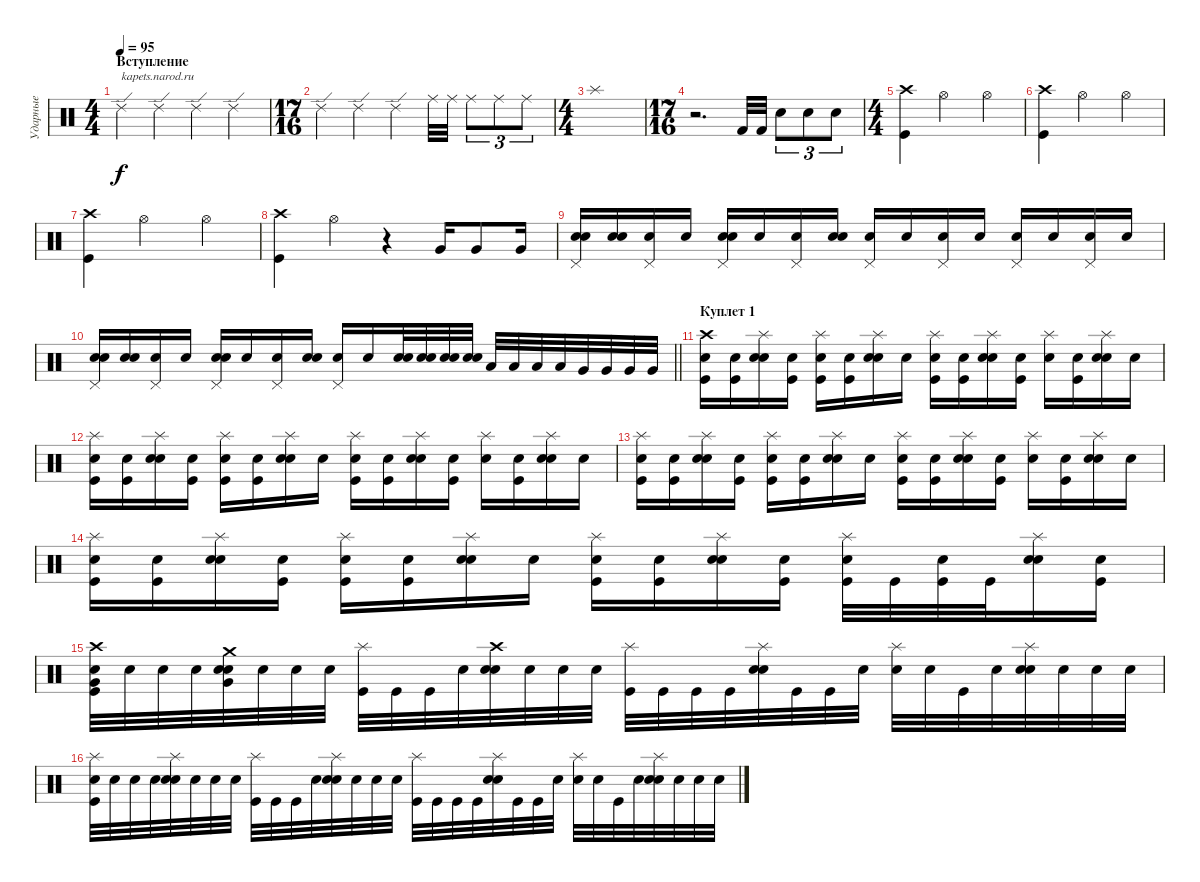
\track ("Ударные" "Ударные") {instrument percussion}
\staff {score}
\articulation defaults
\ts (4 4)
\section ("" "Вступление")
\tempo 95
\clef neutral
\ks c "Ride (edge) 2".4{txt "kapets.narod.ru" dy f} "Ride (edge) 2".4 "Ride (edge) 2".4 "Ride (edge) 2".4
|
\ts (17 16)
"Ride (edge) 2".4 "Ride (edge) 2".4 "Ride (edge) 2".4 "Ride (middle)".32 "Ride (middle)".32 "Ride (middle)".8{tu (3 2)} "Ride (middle)".8{tu (3 2)} "Ride (middle)".8{tu (3 2)} |
\ts (4 4)
"Splash (hit)".1 |
\ts (17 16)
r.2{d} "Kick (hit) 2".32 "Kick (hit) 2".32 "Electric Snare (hit)".8{tu (3 2)} "Electric Snare (hit)".8{tu (3 2)} "Electric Snare (hit)".8{tu (3 2)} |
\ts (4 4)
("Crash high (hit)" "Kick (hit)").4 "Hi-Hat (open)".2 "Hi-Hat (open)".4 |
("Crash high (hit)" "Kick (hit)").4 "Hi-Hat (open)".2 "Hi-Hat (open)".4 |
("Crash high (hit)" "Kick (hit)").4 "Hi-Hat (open)".2 "Hi-Hat (open)".4 |
("Crash high (hit)" "Kick (hit)").4 "Hi-Hat (open)".4 r.4 "Very Low Tom (hit)".16 "Very Low Tom (hit)".8 "Very Low Tom (hit)".16 |
("Pedal Hi-Hat (hit)" "Electric Snare (hit)" "Snare (hit)"{x}).16 ("Electric Snare (hit)" "Snare (hit)"{x}).16 ("Pedal Hi-Hat (hit)" "Snare (hit)"{x}).16 "Snare (hit)"{x}.16 ("Pedal Hi-Hat (hit)" "Electric Snare (hit)" "Snare (hit)"{x}).16 "Snare (hit)"{x}.16 ("Pedal Hi-Hat (hit)" "Snare (hit)"{x}).16 ("Electric Snare (hit)" "Snare (hit)"{x}).16 ("Pedal Hi-Hat (hit)" "Snare (hit)"{x}).16 "Snare (hit)"{x}.16 ("Pedal Hi-Hat (hit)" "Snare (hit)"{x}).16 "Snare (hit)"{x}.16 ("Pedal Hi-Hat (hit)" "Snare (hit)"{x}).16 "Snare (hit)"{x}.16 ("Pedal Hi-Hat (hit)" "Snare (hit)"{x}).16 "Snare (hit)"{x}.16 |
\barLineRight lightlight
("Pedal Hi-Hat (hit)" "Electric Snare (hit)" "Snare (hit)"{x}).16 ("Electric Snare (hit)" "Snare (hit)"{x}).16 ("Pedal Hi-Hat (hit)" "Snare (hit)"{x}).16 "Snare (hit)"{x}.16 ("Pedal Hi-Hat (hit)" "Electric Snare (hit)" "Snare (hit)"{x}).16 "Snare (hit)"{x}.16 ("Pedal Hi-Hat (hit)" "Snare (hit)"{x}).16 ("Electric Snare (hit)" "Snare (hit)"{x}).16 ("Pedal Hi-Hat (hit)" "Snare (hit)"{x}).16 "Snare (hit)"{x}.16 ("Electric Snare (hit)" "Snare (hit)"{x}).32 ("Electric Snare (hit)" "Snare (hit)"{x}).32 ("Electric Snare (hit)" "Snare (hit)"{x}).32 ("Electric Snare (hit)" "Snare (hit)"{x}).32 "Low Tom (hit)".32 "Low Tom (hit)".32 "Low Tom (hit)".32 "Low Tom (hit)".32 "Very Low Tom (hit)".32 "Very Low Tom (hit)".32 "Very Low Tom (hit)".32 "Very Low Tom (hit)".32 |
\section ("" "Куплет 1")
("Crash high (hit)" "Kick (hit)" "Snare (hit)"{x}).16 ("Kick (hit)" "Snare (hit)"{x}).16 ("Splash (hit)" "Electric Snare (hit)" "Snare (hit)"{x}).16 ("Kick (hit)" "Snare (hit)"{x}).16 ("Splash (hit)" "Kick (hit)" "Snare (hit)"{x}).16 ("Kick (hit)" "Snare (hit)"{x}).16 ("Splash (hit)" "Electric Snare (hit)" "Snare (hit)"{x}).16 "Snare (hit)"{x}.16 ("Splash (hit)" "Kick (hit)" "Snare (hit)"{x}).16 ("Kick (hit)" "Snare (hit)"{x}).16 ("Splash (hit)" "Electric Snare (hit)" "Snare (hit)"{x}).16 ("Kick (hit)" "Snare (hit)"{x}).16 ("Splash (hit)" "Snare (hit)"{x}).16 ("Kick (hit)" "Snare (hit)"{x}).16 ("Splash (hit)" "Electric Snare (hit)" "Snare (hit)"{x}).16 "Snare (hit)"{x}.16 |
("Splash (hit)" "Kick (hit)" "Snare (hit)"{x}).16 ("Kick (hit)" "Snare (hit)"{x}).16 ("Splash (hit)" "Electric Snare (hit)" "Snare (hit)"{x}).16 ("Kick (hit)" "Snare (hit)"{x}).16 ("Splash (hit)" "Kick (hit)" "Snare (hit)"{x}).16 ("Kick (hit)" "Snare (hit)"{x}).16 ("Splash (hit)" "Electric Snare (hit)" "Snare (hit)"{x}).16 "Snare (hit)"{x}.16 ("Splash (hit)" "Kick (hit)" "Snare (hit)"{x}).16 ("Kick (hit)" "Snare (hit)"{x}).16 ("Splash (hit)" "Electric Snare (hit)" "Snare (hit)"{x}).16 ("Kick (hit)" "Snare (hit)"{x}).16 ("Splash (hit)" "Snare (hit)"{x}).16 ("Kick (hit)" "Snare (hit)"{x}).16 ("Splash (hit)" "Electric Snare (hit)" "Snare (hit)"{x}).16 "Snare (hit)"{x}.16 |
("Splash (hit)" "Kick (hit)" "Snare (hit)"{x}).16 ("Kick (hit)" "Snare (hit)"{x}).16 ("Splash (hit)" "Electric Snare (hit)" "Snare (hit)"{x}).16 ("Kick (hit)" "Snare (hit)"{x}).16 ("Splash (hit)" "Kick (hit)" "Snare (hit)"{x}).16 ("Kick (hit)" "Snare (hit)"{x}).16 ("Splash (hit)" "Electric Snare (hit)" "Snare (hit)"{x}).16 "Snare (hit)"{x}.16 ("Splash (hit)" "Kick (hit)" "Snare (hit)"{x}).16 ("Kick (hit)" "Snare (hit)"{x}).16 ("Splash (hit)" "Electric Snare (hit)" "Snare (hit)"{x}).16 ("Kick (hit)" "Snare (hit)"{x}).16 ("Splash (hit)" "Snare (hit)"{x}).16 ("Kick (hit)" "Snare (hit)"{x}).16 ("Splash (hit)" "Electric Snare (hit)" "Snare (hit)"{x}).16 "Snare (hit)"{x}.16 |
("Splash (hit)" "Kick (hit)" "Snare (hit)"{x}).16 ("Kick (hit)" "Snare (hit)"{x}).16 ("Splash (hit)" "Electric Snare (hit)" "Snare (hit)"{x}).16 ("Kick (hit)" "Snare (hit)"{x}).16 ("Splash (hit)" "Kick (hit)" "Snare (hit)"{x}).16 ("Kick (hit)" "Snare (hit)"{x}).16 ("Splash (hit)" "Electric Snare (hit)" "Snare (hit)"{x}).16 "Snare (hit)"{x}.16 ("Splash (hit)" "Kick (hit)" "Snare (hit)"{x}).16 ("Kick (hit)" "Snare (hit)"{x}).16 ("Splash (hit)" "Electric Snare (hit)" "Snare (hit)"{x}).16 ("Kick (hit)" "Snare (hit)"{x}).16 ("Splash (hit)" "Kick (hit)" "Snare (hit)"{x}).32 "Kick (hit)".32 ("Kick (hit)" "Snare (hit)"{x}).32 "Kick (hit)".32 ("Splash (hit)" "Electric Snare (hit)" "Snare (hit)"{x}).16 ("Kick (hit)" "Snare (hit)"{x}).16 |
("Crash high (hit)" "Very Low Tom (hit)" "Kick (hit)" "Snare (hit)"{x}).32 "Snare (hit)"{x}.32 "Snare (hit)"{x}.32 "Snare (hit)"{x}.32 ("Crash medium (hit)" "Very Low Tom (hit)" "Electric Snare (hit)" "Snare (hit)"{x}).32 "Snare (hit)"{x}.32 "Snare (hit)"{x}.32 "Snare (hit)"{x}.32 ("Splash (hit)" "Kick (hit)").32 "Kick (hit)".32 "Kick (hit)".32 "Snare (hit)"{x}.32 ("Crash high (hit)" "Electric Snare (hit)" "Snare (hit)"{x}).32 "Snare (hit)"{x}.32 "Snare (hit)"{x}.32 "Snare (hit)"{x}.32 ("Splash (hit)" "Kick (hit)").32 "Kick (hit)".32 "Kick (hit)".32 "Kick (hit)".32 ("Splash (hit)" "Electric Snare (hit)" "Snare (hit)"{x}).32 "Kick (hit)"{x}.32 "Kick (hit)".32 "Snare (hit)"{x}.32 ("Splash (hit)" "Snare (hit)"{x}).32 "Snare (hit)"{x}.32 "Kick (hit)".32 "Snare (hit)"{x}.32 ("Splash (hit)" "Electric Snare (hit)" "Snare (hit)"{x}).32 "Snare (hit)"{x}.32 "Snare (hit)"{x}.32 "Snare (hit)"{x}.32 |
("Splash (hit)" "Kick (hit)" "Snare (hit)"{x}).32 "Snare (hit)"{x}.32 "Snare (hit)"{x}.32 "Snare (hit)"{x}.32 ("Splash (hit)" "Electric Snare (hit)" "Snare (hit)"{x}).32 "Snare (hit)"{x}.32 "Snare (hit)"{x}.32 "Snare (hit)"{x}.32 ("Splash (hit)" "Kick (hit)").32 "Kick (hit)".32 "Kick (hit)".32 "Snare (hit)"{x}.32 ("Splash (hit)" "Electric Snare (hit)" "Snare (hit)"{x}).32 "Snare (hit)"{x}.32 "Snare (hit)"{x}.32 "Snare (hit)"{x}.32 ("Splash (hit)" "Kick (hit)").32 "Kick (hit)".32 "Kick (hit)".32 "Kick (hit)".32 ("Splash (hit)" "Electric Snare (hit)" "Snare (hit)"{x}).32 "Kick (hit)"{x}.32 "Kick (hit)".32 "Snare (hit)"{x}.32 ("Splash (hit)" "Snare (hit)"{x}).32 "Snare (hit)"{x}.32 "Kick (hit)".32 "Snare (hit)"{x}.32 ("Splash (hit)" "Electric Snare (hit)" "Snare (hit)"{x}).32 "Snare (hit)"{x}.32 "Snare (hit)"{x}.32 "Snare (hit)"{x}.32
